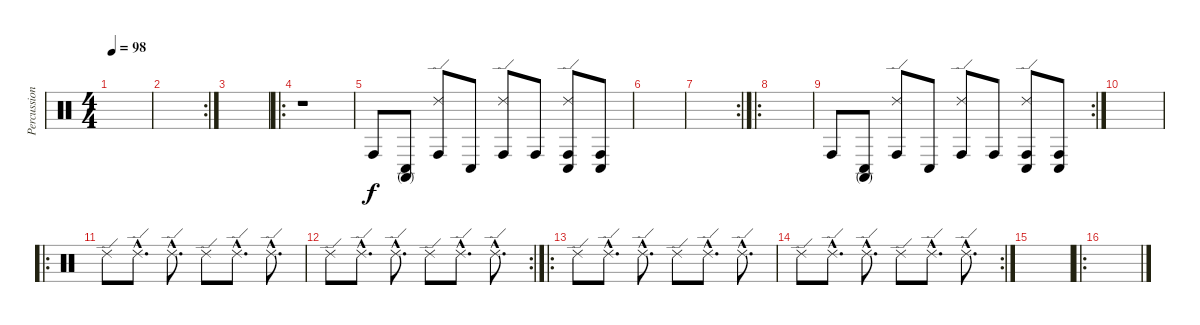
\track ("Percussion" "Percussion") {instrument percussion}
\staff {score}
\articulation defaults
\ts (4 4)
\tempo 98
\clef neutral
\ks c
|
\rc 2
|
|
\ro
r.1 |
"Conga high (hit)".8 ("Conga low (hit)" "Conga high (mute)").8 ("Conga high (hit)" "Ride (edge) 2").8 "Conga low (hit)".8 ("Conga high (hit)" "Ride (edge) 2").8 "Conga high (hit)".8 ("Conga high (hit)" "Conga low (hit)" "Ride (edge) 2").8 ("Conga high (hit)" "Conga low (hit)").8 |
|
\rc 2
|
\ro
|
\rc 2 "Conga high (hit)".8
("Conga low (hit)" "Conga high (mute)").8 ("Conga high (hit)" "Ride (edge) 2").8 "Conga low (hit)".8 ("Conga high (hit)" "Ride (edge) 2").8 "Conga high (hit)".8 ("Conga high (hit)" "Conga low (hit)" "Ride (edge) 2").8 ("Conga high (hit)" "Conga low (hit)").8 |
|
\ro "Ride (edge) 2".8 "Ride (edge) 2"{hac}.8{d} "Ride (edge) 2"{hac}.8{d} "Ride (edge) 2".8 "Ride (edge) 2"{hac}.8{d} "Ride (edge) 2"{hac}.8{d}
|
\rc 2 "Ride (edge) 2".8 "Ride (edge) 2"{hac}.8{d} "Ride (edge) 2"{hac}.8{d} "Ride (edge) 2".8 "Ride (edge) 2"{hac}.8{d} "Ride (edge) 2"{hac}.8{d}
|
\ro "Ride (edge) 2".8 "Ride (edge) 2"{hac}.8{d} "Ride (edge) 2"{hac}.8{d} "Ride (edge) 2".8 "Ride (edge) 2"{hac}.8{d} "Ride (edge) 2"{hac}.8{d}
|
\rc 2 "Ride (edge) 2".8 "Ride (edge) 2"{hac}.8{d} "Ride (edge) 2"{hac}.8{d} "Ride (edge) 2".8 "Ride (edge) 2"{hac}.8{d} "Ride (edge) 2"{hac}.8{d}
|
|
\ro
